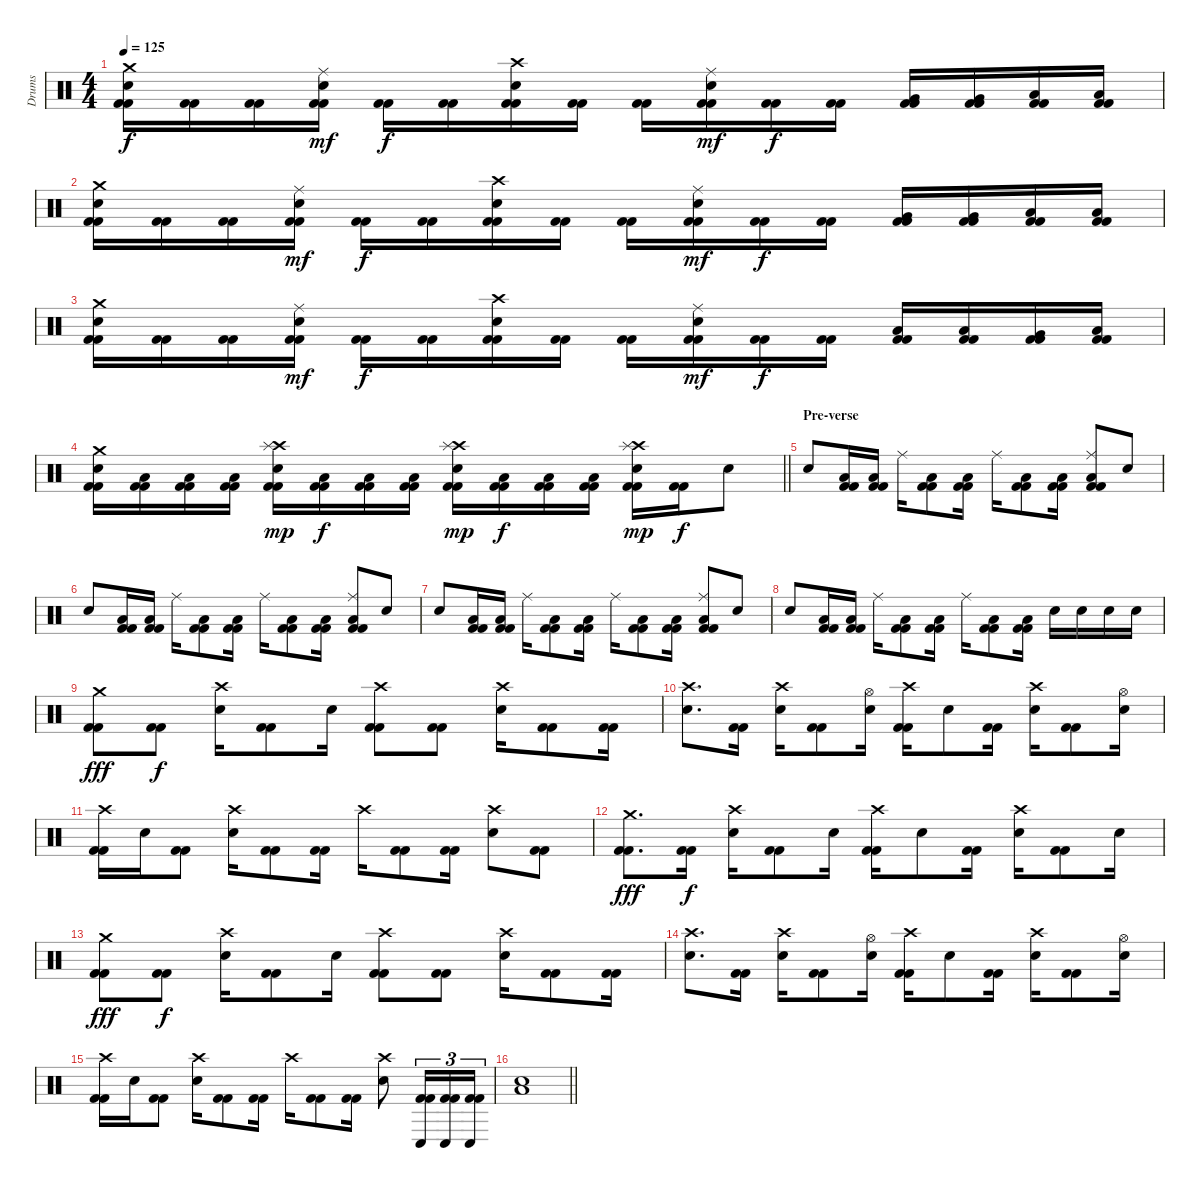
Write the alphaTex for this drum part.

\track ("Drums" "Drums") {instrument percussion}
\staff {score}
\articulation defaults
\ts (4 4)
\tempo 125
\clef neutral
\ks c
("Crash medium (hit)" "Electric Snare (hit)" "Kick (hit) 2" "Kick (hit) 2").16{dy f} ("Kick (hit) 2" "Kick (hit) 2").16 ("Kick (hit) 2" "Kick (hit) 2").16 ("Ride (middle)" "Electric Snare (hit)" "Kick (hit) 2" "Kick (hit) 2").16{dy mf} ("Kick (hit) 2" "Kick (hit) 2").16{dy f} ("Kick (hit) 2" "Kick (hit) 2").16 ("Crash high (hit)" "Electric Snare (hit)" "Kick (hit) 2" "Kick (hit) 2").16 ("Kick (hit) 2" "Kick (hit) 2").16 ("Kick (hit) 2" "Kick (hit) 2").16 ("Ride (middle)" "Electric Snare (hit)" "Kick (hit) 2" "Kick (hit) 2").16{dy mf} ("Kick (hit) 2" "Kick (hit) 2").16{dy f} ("Kick (hit) 2" "Kick (hit) 2").16 ("Very Low Tom (hit)" "Kick (hit) 2" "Kick (hit) 2").16 ("Very Low Tom (hit)" "Kick (hit) 2" "Kick (hit) 2").16 ("Low Floor Tom (hit)" "Kick (hit) 2" "Kick (hit) 2").16 ("Low Floor Tom (hit)" "Kick (hit) 2" "Kick (hit) 2").16 |
("Crash medium (hit)" "Electric Snare (hit)" "Kick (hit) 2" "Kick (hit) 2").16 ("Kick (hit) 2" "Kick (hit) 2").16 ("Kick (hit) 2" "Kick (hit) 2").16 ("Ride (middle)" "Electric Snare (hit)" "Kick (hit) 2" "Kick (hit) 2").16{dy mf} ("Kick (hit) 2" "Kick (hit) 2").16{dy f} ("Kick (hit) 2" "Kick (hit) 2").16 ("Crash high (hit)" "Electric Snare (hit)" "Kick (hit) 2" "Kick (hit) 2").16 ("Kick (hit) 2" "Kick (hit) 2").16 ("Kick (hit) 2" "Kick (hit) 2").16 ("Ride (middle)" "Electric Snare (hit)" "Kick (hit) 2" "Kick (hit) 2").16{dy mf} ("Kick (hit) 2" "Kick (hit) 2").16{dy f} ("Kick (hit) 2" "Kick (hit) 2").16 ("Very Low Tom (hit)" "Kick (hit) 2" "Kick (hit) 2").16 ("Very Low Tom (hit)" "Kick (hit) 2" "Kick (hit) 2").16 ("Low Floor Tom (hit)" "Kick (hit) 2" "Kick (hit) 2").16 ("Low Floor Tom (hit)" "Kick (hit) 2" "Kick (hit) 2").16 |
("Crash medium (hit)" "Electric Snare (hit)" "Kick (hit) 2" "Kick (hit) 2").16 ("Kick (hit) 2" "Kick (hit) 2").16 ("Kick (hit) 2" "Kick (hit) 2").16 ("Ride (middle)" "Electric Snare (hit)" "Kick (hit) 2" "Kick (hit) 2").16{dy mf} ("Kick (hit) 2" "Kick (hit) 2").16{dy f} ("Kick (hit) 2" "Kick (hit) 2").16 ("Crash high (hit)" "Electric Snare (hit)" "Kick (hit) 2" "Kick (hit) 2").16 ("Kick (hit) 2" "Kick (hit) 2").16 ("Kick (hit) 2" "Kick (hit) 2").16 ("Ride (middle)" "Electric Snare (hit)" "Kick (hit) 2" "Kick (hit) 2").16{dy mf} ("Kick (hit) 2" "Kick (hit) 2").16{dy f} ("Kick (hit) 2" "Kick (hit) 2").16 ("Low Tom (hit)" "Kick (hit) 2" "Kick (hit) 2").16 ("Low Tom (hit)" "Kick (hit) 2" "Kick (hit) 2").16 ("Very Low Tom (hit)" "Kick (hit) 2" "Kick (hit) 2").16 ("Low Floor Tom (hit)" "Kick (hit) 2" "Kick (hit) 2").16 |
\barLineRight lightlight
("Crash medium (hit)" "Electric Snare (hit)" "Kick (hit) 2" "Kick (hit) 2").16 ("Low Floor Tom (hit)" "Kick (hit) 2" "Kick (hit) 2").16 ("Low Floor Tom (hit)" "Kick (hit) 2" "Kick (hit) 2").16 ("Low Floor Tom (hit)" "Kick (hit) 2" "Kick (hit) 2").16 ("Crash high (hit)" "Splash (hit)" "Electric Snare (hit)" "Kick (hit) 2" "Kick (hit) 2").16{dy mp} ("Low Floor Tom (hit)" "Kick (hit) 2" "Kick (hit) 2").16{dy f} ("Low Floor Tom (hit)" "Kick (hit) 2" "Kick (hit) 2").16 ("Low Floor Tom (hit)" "Kick (hit) 2" "Kick (hit) 2").16 ("Crash high (hit)" "Splash (hit)" "Electric Snare (hit)" "Kick (hit) 2" "Kick (hit) 2").16{dy mp} ("Low Floor Tom (hit)" "Kick (hit) 2" "Kick (hit) 2").16{dy f} ("Low Tom (hit)" "Kick (hit) 2" "Kick (hit) 2").16 ("Low Tom (hit)" "Kick (hit) 2" "Kick (hit) 2").16 ("Crash high (hit)" "Splash (hit)" "Electric Snare (hit)" "Kick (hit) 2" "Kick (hit) 2").16{dy mp} ("Kick (hit) 2" "Kick (hit) 2").16{dy f} "Electric Snare (hit)".8 |
\section ("" "Pre-verse")
"Electric Snare (hit)".8 ("Low Floor Tom (hit)" "Kick (hit) 2" "Kick (hit) 2").16 ("Low Floor Tom (hit)" "Kick (hit) 2" "Kick (hit) 2").16 "Ride (middle)".16 ("Low Floor Tom (hit)" "Kick (hit) 2" "Kick (hit) 2").8 ("Low Floor Tom (hit)" "Kick (hit) 2" "Kick (hit) 2").16 "Ride (middle)".16 ("Low Floor Tom (hit)" "Kick (hit) 2" "Kick (hit) 2").8 ("Low Floor Tom (hit)" "Kick (hit) 2" "Kick (hit) 2").16 ("Ride (middle)" "Low Floor Tom (hit)" "Kick (hit) 2" "Kick (hit) 2").8 "Electric Snare (hit)".8 |
"Electric Snare (hit)".8 ("Low Floor Tom (hit)" "Kick (hit) 2" "Kick (hit) 2").16 ("Low Floor Tom (hit)" "Kick (hit) 2" "Kick (hit) 2").16 "Ride (middle)".16 ("Low Floor Tom (hit)" "Kick (hit) 2" "Kick (hit) 2").8 ("Low Floor Tom (hit)" "Kick (hit) 2" "Kick (hit) 2").16 "Ride (middle)".16 ("Low Floor Tom (hit)" "Kick (hit) 2" "Kick (hit) 2").8 ("Low Floor Tom (hit)" "Kick (hit) 2" "Kick (hit) 2").16 ("Ride (middle)" "Low Floor Tom (hit)" "Kick (hit) 2" "Kick (hit) 2").8 "Electric Snare (hit)".8 |
"Electric Snare (hit)".8 ("Low Floor Tom (hit)" "Kick (hit) 2" "Kick (hit) 2").16 ("Low Floor Tom (hit)" "Kick (hit) 2" "Kick (hit) 2").16 "Ride (middle)".16 ("Low Floor Tom (hit)" "Kick (hit) 2" "Kick (hit) 2").8 ("Low Floor Tom (hit)" "Kick (hit) 2" "Kick (hit) 2").16 "Ride (middle)".16 ("Low Floor Tom (hit)" "Kick (hit) 2" "Kick (hit) 2").8 ("Low Floor Tom (hit)" "Kick (hit) 2" "Kick (hit) 2").16 ("Ride (middle)" "Low Floor Tom (hit)" "Kick (hit) 2" "Kick (hit) 2").8 "Electric Snare (hit)".8 |
"Electric Snare (hit)".8 ("Low Floor Tom (hit)" "Kick (hit) 2" "Kick (hit) 2").16 ("Low Floor Tom (hit)" "Kick (hit) 2" "Kick (hit) 2").16 "Ride (middle)".16 ("Low Floor Tom (hit)" "Kick (hit) 2" "Kick (hit) 2").8 ("Low Floor Tom (hit)" "Kick (hit) 2" "Kick (hit) 2").16 "Ride (middle)".16 ("Low Floor Tom (hit)" "Kick (hit) 2" "Kick (hit) 2").8 ("Low Floor Tom (hit)" "Kick (hit) 2" "Kick (hit) 2").16 "Electric Snare (hit)".16 "Electric Snare (hit)".16 "Electric Snare (hit)".16 "Electric Snare (hit)".16 |
("Crash medium (hit)" "Kick (hit) 2" "Kick (hit) 2").8{dy fff} ("Kick (hit) 2" "Kick (hit) 2").8{dy f} ("Crash high (hit)" "Electric Snare (hit)").16 ("Kick (hit) 2" "Kick (hit) 2").8 "Electric Snare (hit)".16 ("Crash high (hit)" "Kick (hit) 2" "Kick (hit) 2").8 ("Kick (hit) 2" "Kick (hit) 2").8 ("Crash high (hit)" "Electric Snare (hit)").16 ("Kick (hit) 2" "Kick (hit) 2").8 ("Kick (hit) 2" "Kick (hit) 2").16 |
("Crash high (hit)" "Electric Snare (hit)").8{d} ("Kick (hit) 2" "Kick (hit) 2").16 ("Crash high (hit)" "Electric Snare (hit)").16 ("Kick (hit) 2" "Kick (hit) 2").8 ("Hi-Hat (open)" "Electric Snare (hit)").16 ("Crash high (hit)" "Kick (hit) 2" "Kick (hit) 2").16 "Electric Snare (hit)".8 ("Kick (hit) 2" "Kick (hit) 2").16 ("Crash high (hit)" "Electric Snare (hit)").16 ("Kick (hit) 2" "Kick (hit) 2").8 ("Hi-Hat (open)" "Electric Snare (hit)").16 |
("Crash high (hit)" "Kick (hit) 2" "Kick (hit) 2").16 "Electric Snare (hit)".16 ("Kick (hit) 2" "Kick (hit) 2").8 ("Crash high (hit)" "Electric Snare (hit)").16 ("Kick (hit) 2" "Kick (hit) 2").8 ("Kick (hit) 2" "Kick (hit) 2").16 "Crash high (hit)".16 ("Kick (hit) 2" "Kick (hit) 2").8 ("Kick (hit) 2" "Kick (hit) 2").16 ("Crash high (hit)" "Electric Snare (hit)").8 ("Kick (hit) 2" "Kick (hit) 2").8 |
("Crash medium (hit)" "Kick (hit) 2" "Kick (hit) 2").8{d dy fff} ("Kick (hit) 2" "Kick (hit) 2").16{dy f} ("Crash high (hit)" "Electric Snare (hit)").16 ("Kick (hit) 2" "Kick (hit) 2").8 "Electric Snare (hit)".16 ("Crash high (hit)" "Kick (hit) 2" "Kick (hit) 2").16 "Electric Snare (hit)".8 ("Kick (hit) 2" "Kick (hit) 2").16 ("Crash high (hit)" "Electric Snare (hit)").16 ("Kick (hit) 2" "Kick (hit) 2").8 "Electric Snare (hit)".16 |
("Crash medium (hit)" "Kick (hit) 2" "Kick (hit) 2").8{dy fff} ("Kick (hit) 2" "Kick (hit) 2").8{dy f} ("Crash high (hit)" "Electric Snare (hit)").16 ("Kick (hit) 2" "Kick (hit) 2").8 "Electric Snare (hit)".16 ("Crash high (hit)" "Kick (hit) 2" "Kick (hit) 2").8 ("Kick (hit) 2" "Kick (hit) 2").8 ("Crash high (hit)" "Electric Snare (hit)").16 ("Kick (hit) 2" "Kick (hit) 2").8 ("Kick (hit) 2" "Kick (hit) 2").16 |
("Crash high (hit)" "Electric Snare (hit)").8{d} ("Kick (hit) 2" "Kick (hit) 2").16 ("Crash high (hit)" "Electric Snare (hit)").16 ("Kick (hit) 2" "Kick (hit) 2").8 ("Hi-Hat (open)" "Electric Snare (hit)").16 ("Crash high (hit)" "Kick (hit) 2" "Kick (hit) 2").16 "Electric Snare (hit)".8 ("Kick (hit) 2" "Kick (hit) 2").16 ("Crash high (hit)" "Electric Snare (hit)").16 ("Kick (hit) 2" "Kick (hit) 2").8 ("Hi-Hat (open)" "Electric Snare (hit)").16 |
("Crash high (hit)" "Kick (hit) 2" "Kick (hit) 2").16 "Electric Snare (hit)".16 ("Kick (hit) 2" "Kick (hit) 2").8 ("Crash high (hit)" "Electric Snare (hit)").16 ("Kick (hit) 2" "Kick (hit) 2").8 ("Kick (hit) 2" "Kick (hit) 2").16 "Crash high (hit)".16 ("Kick (hit) 2" "Kick (hit) 2").8 ("Kick (hit) 2" "Kick (hit) 2").16 ("Crash high (hit)" "Electric Snare (hit)").8 ("Conga low (hit)" "Kick (hit) 2" "Kick (hit) 2").16{tu (3 2)} ("Conga low (hit)" "Kick (hit) 2" "Kick (hit) 2").16{tu (3 2)} ("Conga low (hit)" "Kick (hit) 2" "Kick (hit) 2").16{tu (3 2)} |
\barLineRight lightlight
("Electric Snare (hit)" "Low Tom (hit)").1
